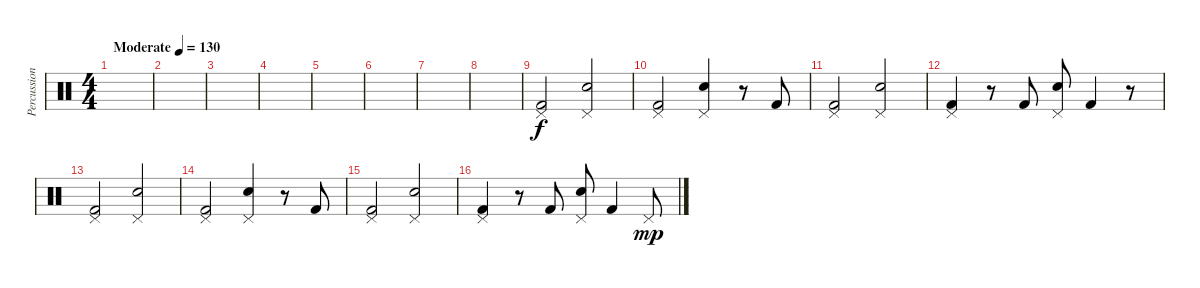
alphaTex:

\track ("Percussion" "Percussion") {instrument percussion}
\staff
\articulation defaults
\ts (4 4)
\tempo (130 "Moderate")
\clef neutral
\ks c
|
|
|
|
|
|
|
|
("Pedal Hi-Hat (hit)" "Kick (hit) 2").2 ("Pedal Hi-Hat (hit)" "Electric Snare (hit)").2 |
("Pedal Hi-Hat (hit)" "Kick (hit) 2").2 ("Pedal Hi-Hat (hit)" "Electric Snare (hit)").4 r.8 "Kick (hit) 2".8 |
("Pedal Hi-Hat (hit)" "Kick (hit) 2").2 ("Pedal Hi-Hat (hit)" "Electric Snare (hit)").2 |
("Pedal Hi-Hat (hit)" "Kick (hit) 2").4 r.8 "Kick (hit) 2".8 ("Pedal Hi-Hat (hit)" "Electric Snare (hit)").8 "Kick (hit) 2".4 r.8 |
("Pedal Hi-Hat (hit)" "Kick (hit) 2").2 ("Pedal Hi-Hat (hit)" "Electric Snare (hit)").2 |
("Pedal Hi-Hat (hit)" "Kick (hit) 2").2 ("Pedal Hi-Hat (hit)" "Electric Snare (hit)").4 r.8 "Kick (hit) 2".8 |
("Pedal Hi-Hat (hit)" "Kick (hit) 2").2 ("Pedal Hi-Hat (hit)" "Electric Snare (hit)").2 |
("Pedal Hi-Hat (hit)" "Kick (hit) 2").4 r.8 "Kick (hit) 2".8 ("Pedal Hi-Hat (hit)" "Electric Snare (hit)").8 "Kick (hit) 2".4 "Pedal Hi-Hat (hit)".8{dy mp}
